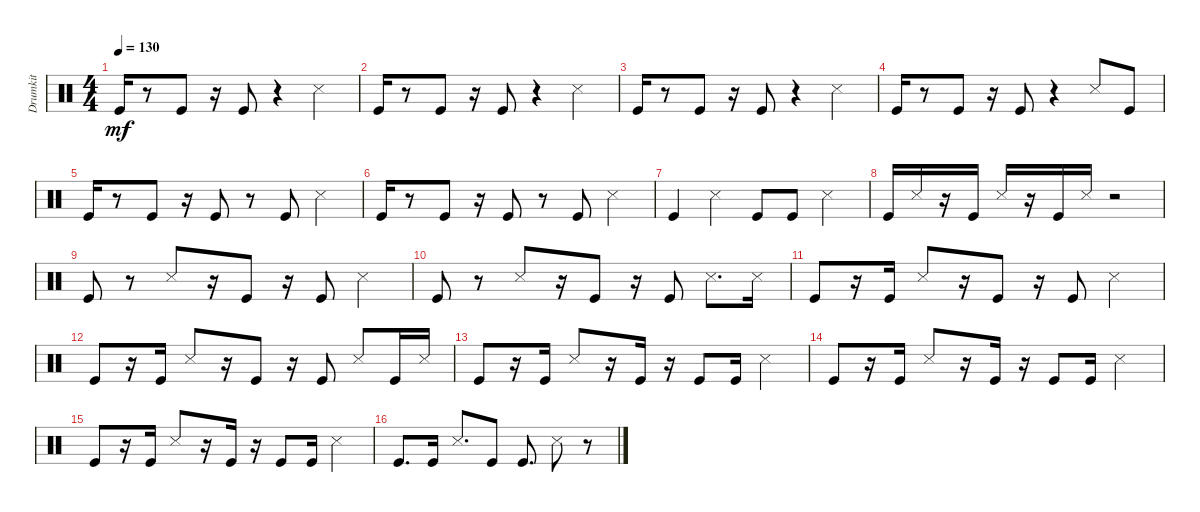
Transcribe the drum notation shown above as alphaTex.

\track ("Drumkit" "Drumkit") {instrument percussion}
\staff {score}
\articulation defaults
\ts (4 4)
\tempo 130
\clef neutral
\ks c "Kick (hit)".16{dy mf}
r.8 "Kick (hit)".8 r.16 "Kick (hit)".8 r.4 "Snare (side stick) 3".4 |
"Kick (hit)".16 r.8 "Kick (hit)".8 r.16 "Kick (hit)".8 r.4 "Snare (side stick) 3".4 |
"Kick (hit)".16 r.8 "Kick (hit)".8 r.16 "Kick (hit)".8 r.4 "Snare (side stick) 3".4 |
"Kick (hit)".16 r.8 "Kick (hit)".8 r.16 "Kick (hit)".8 r.4 "Snare (side stick) 3".8 "Kick (hit)".8 |
"Kick (hit)".16 r.8 "Kick (hit)".8 r.16 "Kick (hit)".8 r.8 "Kick (hit)".8 "Snare (side stick) 3".4 |
"Kick (hit)".16 r.8 "Kick (hit)".8 r.16 "Kick (hit)".8 r.8 "Kick (hit)".8 "Snare (side stick) 3".4 |
"Kick (hit)".4 "Snare (side stick) 3".4 "Kick (hit)".8 "Kick (hit)".8 "Snare (side stick) 3".4 |
"Kick (hit)".16 "Snare (side stick) 3".16 r.16 "Kick (hit)".16 "Snare (side stick) 3".16 r.16 "Kick (hit)".16 "Snare (side stick) 3".16 r.2 |
"Kick (hit)".8 r.8 "Snare (side stick) 3".8 r.16 "Kick (hit)".8 r.16 "Kick (hit)".8 "Snare (side stick) 3".4 |
"Kick (hit)".8 r.8 "Snare (side stick) 3".8 r.16 "Kick (hit)".8 r.16 "Kick (hit)".8 "Snare (side stick) 3".8{d} "Snare (side stick) 3".16 |
"Kick (hit)".8 r.16 "Kick (hit)".16 "Snare (side stick) 3".8 r.16 "Kick (hit)".8 r.16 "Kick (hit)".8 "Snare (side stick) 3".4 |
"Kick (hit)".8 r.16 "Kick (hit)".16 "Snare (side stick) 3".8 r.16 "Kick (hit)".8 r.16 "Kick (hit)".8 "Snare (side stick) 3".8 "Kick (hit)".16 "Snare (side stick) 3".16 |
"Kick (hit)".8 r.16 "Kick (hit)".16 "Snare (side stick) 3".8 r.16 "Kick (hit)".16 r.16 "Kick (hit)".8 "Kick (hit)".16 "Snare (side stick) 3".4 |
"Kick (hit)".8 r.16 "Kick (hit)".16 "Snare (side stick) 3".8 r.16 "Kick (hit)".16 r.16 "Kick (hit)".8 "Kick (hit)".16 "Snare (side stick) 3".4 |
"Kick (hit)".8 r.16 "Kick (hit)".16 "Snare (side stick) 3".8 r.16 "Kick (hit)".16 r.16 "Kick (hit)".8 "Kick (hit)".16 "Snare (side stick) 3".4 |
"Kick (hit)".8{d} "Kick (hit)".16 "Snare (side stick) 3".8{d} "Kick (hit)".8 "Kick (hit)".8{d} "Snare (side stick) 3".8 r.8
